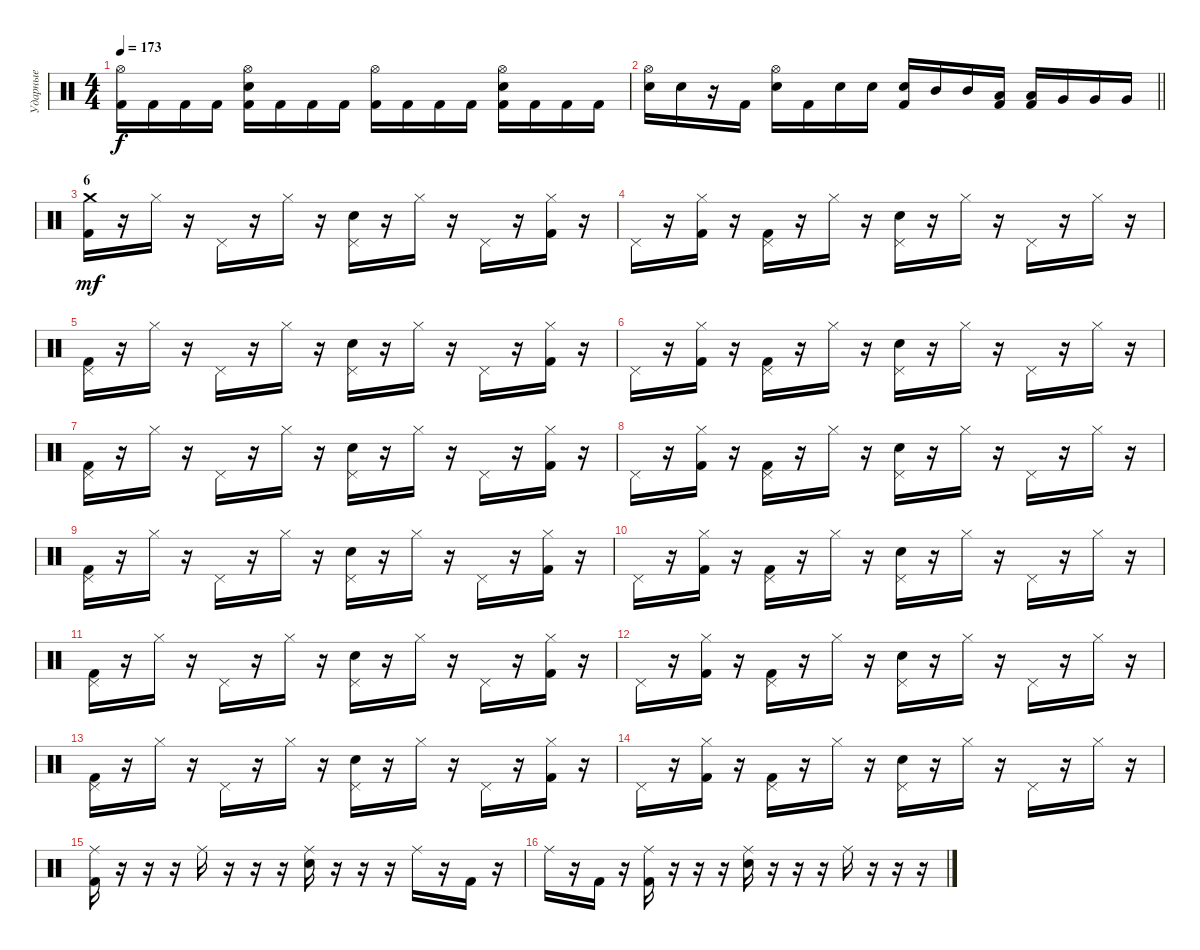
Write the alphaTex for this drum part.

\track ("Ударные" "Ударные") {instrument percussion}
\staff {score}
\articulation defaults
\ts (4 4)
\tempo 173
\clef neutral
\ks c
("Hi-Hat (open)" "Kick (hit) 2").16{dy f} "Kick (hit) 2".16 "Kick (hit) 2".16 "Kick (hit) 2".16 ("Hi-Hat (open)" "Snare (hit) 2" "Kick (hit) 2").16 "Kick (hit) 2".16 "Kick (hit) 2".16 "Kick (hit) 2".16 ("Hi-Hat (open)" "Kick (hit) 2").16 "Kick (hit) 2".16 "Kick (hit) 2".16 "Kick (hit) 2".16 ("Hi-Hat (open)" "Snare (hit) 2" "Kick (hit) 2").16 "Kick (hit) 2".16 "Kick (hit) 2".16 "Kick (hit) 2".16 |
\barLineRight lightlight
("Hi-Hat (open)" "Snare (hit) 2").16 "Snare (hit) 2".16 r.16 "Kick (hit) 2".16 ("Hi-Hat (open)" "Snare (hit) 2").16 "Kick (hit) 2".16 "Snare (hit) 2".16 "Snare (hit) 2".16 ("Snare (hit) 2" "Kick (hit) 2").16 "Mid Tom (hit)".16 "Mid Tom (hit)".16 ("Low Tom (hit)" "Kick (hit) 2").16 ("Low Tom (hit)" "Kick (hit) 2").16 "Very Low Tom (hit)".16 "Very Low Tom (hit)".16 "Very Low Tom (hit)".16 |
\section ("" "6")
("Crash medium (hit)" "Kick (hit) 2").16{dy mf} r.16 "Hi-Hat (closed)".16 r.16 "Pedal Hi-Hat (hit)".16 r.16 "Hi-Hat (closed)".16 r.16 ("Pedal Hi-Hat (hit)" "Snare (hit) 2").16 r.16 "Hi-Hat (closed)".16 r.16 "Pedal Hi-Hat (hit)".16 r.16 ("Hi-Hat (closed)" "Kick (hit) 2").16 r.16 |
"Pedal Hi-Hat (hit)".16 r.16 ("Hi-Hat (closed)" "Kick (hit) 2").16 r.16 ("Pedal Hi-Hat (hit)" "Kick (hit) 2").16 r.16 "Hi-Hat (closed)".16 r.16 ("Pedal Hi-Hat (hit)" "Snare (hit) 2").16 r.16 "Hi-Hat (closed)".16 r.16 "Pedal Hi-Hat (hit)".16 r.16 "Hi-Hat (closed)".16 r.16 |
("Pedal Hi-Hat (hit)" "Kick (hit) 2").16 r.16 "Hi-Hat (closed)".16 r.16 "Pedal Hi-Hat (hit)".16 r.16 "Hi-Hat (closed)".16 r.16 ("Pedal Hi-Hat (hit)" "Snare (hit) 2").16 r.16 "Hi-Hat (closed)".16 r.16 "Pedal Hi-Hat (hit)".16 r.16 ("Hi-Hat (closed)" "Kick (hit) 2").16 r.16 |
"Pedal Hi-Hat (hit)".16 r.16 ("Hi-Hat (closed)" "Kick (hit) 2").16 r.16 ("Pedal Hi-Hat (hit)" "Kick (hit) 2").16 r.16 "Hi-Hat (closed)".16 r.16 ("Pedal Hi-Hat (hit)" "Snare (hit) 2").16 r.16 "Hi-Hat (closed)".16 r.16 "Pedal Hi-Hat (hit)".16 r.16 "Hi-Hat (closed)".16 r.16 |
("Pedal Hi-Hat (hit)" "Kick (hit) 2").16 r.16 "Hi-Hat (closed)".16 r.16 "Pedal Hi-Hat (hit)".16 r.16 "Hi-Hat (closed)".16 r.16 ("Pedal Hi-Hat (hit)" "Snare (hit) 2").16 r.16 "Hi-Hat (closed)".16 r.16 "Pedal Hi-Hat (hit)".16 r.16 ("Hi-Hat (closed)" "Kick (hit) 2").16 r.16 |
"Pedal Hi-Hat (hit)".16 r.16 ("Hi-Hat (closed)" "Kick (hit) 2").16 r.16 ("Pedal Hi-Hat (hit)" "Kick (hit) 2").16 r.16 "Hi-Hat (closed)".16 r.16 ("Pedal Hi-Hat (hit)" "Snare (hit) 2").16 r.16 "Hi-Hat (closed)".16 r.16 "Pedal Hi-Hat (hit)".16 r.16 "Hi-Hat (closed)".16 r.16 |
("Pedal Hi-Hat (hit)" "Kick (hit) 2").16 r.16 "Hi-Hat (closed)".16 r.16 "Pedal Hi-Hat (hit)".16 r.16 "Hi-Hat (closed)".16 r.16 ("Pedal Hi-Hat (hit)" "Snare (hit) 2").16 r.16 "Hi-Hat (closed)".16 r.16 "Pedal Hi-Hat (hit)".16 r.16 ("Hi-Hat (closed)" "Kick (hit) 2").16 r.16 |
"Pedal Hi-Hat (hit)".16 r.16 ("Hi-Hat (closed)" "Kick (hit) 2").16 r.16 ("Pedal Hi-Hat (hit)" "Kick (hit) 2").16 r.16 "Hi-Hat (closed)".16 r.16 ("Pedal Hi-Hat (hit)" "Snare (hit) 2").16 r.16 "Hi-Hat (closed)".16 r.16 "Pedal Hi-Hat (hit)".16 r.16 "Hi-Hat (closed)".16 r.16 |
("Pedal Hi-Hat (hit)" "Kick (hit) 2").16 r.16 "Hi-Hat (closed)".16 r.16 "Pedal Hi-Hat (hit)".16 r.16 "Hi-Hat (closed)".16 r.16 ("Pedal Hi-Hat (hit)" "Snare (hit) 2").16 r.16 "Hi-Hat (closed)".16 r.16 "Pedal Hi-Hat (hit)".16 r.16 ("Hi-Hat (closed)" "Kick (hit) 2").16 r.16 |
"Pedal Hi-Hat (hit)".16 r.16 ("Hi-Hat (closed)" "Kick (hit) 2").16 r.16 ("Pedal Hi-Hat (hit)" "Kick (hit) 2").16 r.16 "Hi-Hat (closed)".16 r.16 ("Pedal Hi-Hat (hit)" "Snare (hit) 2").16 r.16 "Hi-Hat (closed)".16 r.16 "Pedal Hi-Hat (hit)".16 r.16 "Hi-Hat (closed)".16 r.16 |
("Pedal Hi-Hat (hit)" "Kick (hit) 2").16 r.16 "Hi-Hat (closed)".16 r.16 "Pedal Hi-Hat (hit)".16 r.16 "Hi-Hat (closed)".16 r.16 ("Pedal Hi-Hat (hit)" "Snare (hit) 2").16 r.16 "Hi-Hat (closed)".16 r.16 "Pedal Hi-Hat (hit)".16 r.16 ("Hi-Hat (closed)" "Kick (hit) 2").16 r.16 |
"Pedal Hi-Hat (hit)".16 r.16 ("Hi-Hat (closed)" "Kick (hit) 2").16 r.16 ("Pedal Hi-Hat (hit)" "Kick (hit) 2").16 r.16 "Hi-Hat (closed)".16 r.16 ("Pedal Hi-Hat (hit)" "Snare (hit) 2").16 r.16 "Hi-Hat (closed)".16 r.16 "Pedal Hi-Hat (hit)".16 r.16 "Hi-Hat (closed)".16 r.16 |
("Ride (middle)" "Kick (hit) 2").16 r.16 r.16 r.16 "Ride (middle)".16 r.16 r.16 r.16 ("Ride (middle)" "Snare (hit) 2").16 r.16 r.16 r.16 "Ride (middle)".16 r.16 "Kick (hit) 2".16 r.16 |
"Ride (middle)".16 r.16 "Kick (hit) 2".16 r.16 ("Ride (middle)" "Kick (hit) 2").16 r.16 r.16 r.16 ("Ride (middle)" "Snare (hit) 2").16 r.16 r.16 r.16 "Ride (middle)".16 r.16 r.16 r.16
